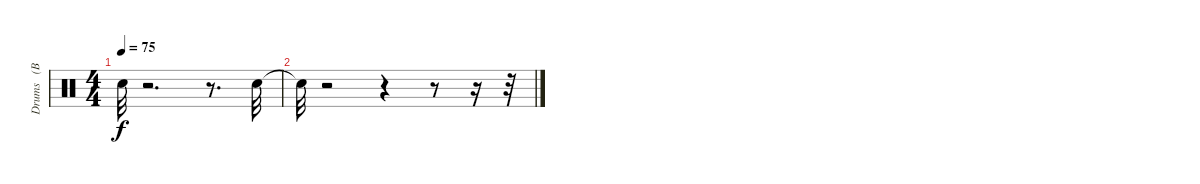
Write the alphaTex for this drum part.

\track ("Drums   (BB)" "Drums   (B") {instrument percussion}
\staff {score}
\articulation defaults
\ts (4 4)
\tempo 75
\clef neutral
\ks c "Snare (hit)"{t}.32{dy f}
r.2{d} r.8{d} "Snare (hit) 2".32 |
"Snare (hit)"{t}.32 r.2 r.4 r.8 r.16 r.32
